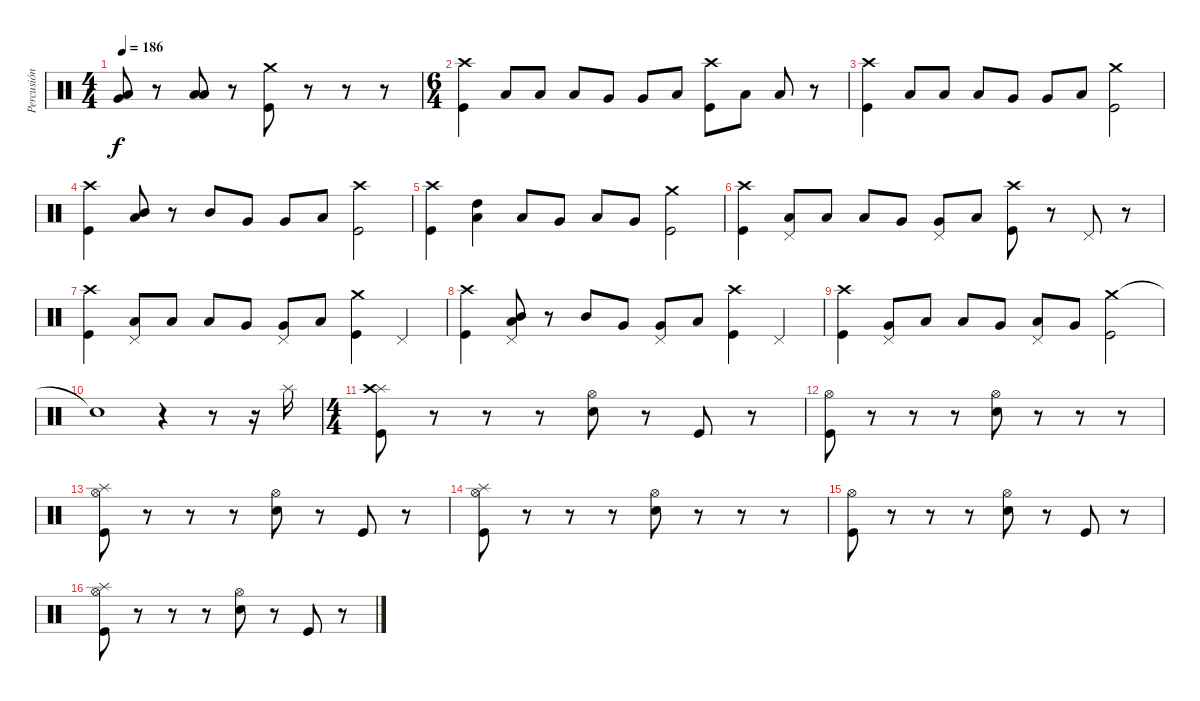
\track ("Percusión" "Percusión") {instrument percussion}
\staff {score}
\articulation defaults
\ts (4 4)
\tempo 186
\clef neutral
\ks c
("Low Tom (hit)" "Very Low Tom (hit)").8{dy f} r.8 ("Low Tom (hit)" "Low Floor Tom (hit)").8 r.8 ("Crash medium (hit)" "Kick (hit)").8 r.8 r.8 r.8 |
\ts (6 4)
("Crash high (hit)" "Kick (hit)").4 "Low Tom (hit)".8 "Low Tom (hit)".8 "Low Tom (hit)".8 "Very Low Tom (hit)".8 "Very Low Tom (hit)".8 "Low Tom (hit)".8 ("Crash high (hit)" "Kick (hit)").8 "Low Tom (hit)".8 "Low Floor Tom (hit)".8 r.8 |
("Crash high (hit)" "Kick (hit)").4 "Low Tom (hit)".8 "Low Tom (hit)".8 "Low Tom (hit)".8 "Very Low Tom (hit)".8 "Very Low Tom (hit)".8 "Low Tom (hit)".8 ("Crash medium (hit)" "Kick (hit)").2 |
("Crash high (hit)" "Kick (hit)").4 ("Low Tom (hit)" "Mid Tom (hit)").8 r.8 "Mid Tom (hit)".8 "Very Low Tom (hit)".8 "Very Low Tom (hit)".8 "Low Tom (hit)".8 ("Crash high (hit)" "Kick (hit)").2 |
("Crash high (hit)" "Kick (hit)").4 ("High Tom (hit)" "Low Floor Tom (hit)").4 "Low Tom (hit)".8 "Very Low Tom (hit)".8 "Low Floor Tom (hit)".8 "Very Low Tom (hit)".8 ("Crash medium (hit)" "Kick (hit)").2 |
("Crash high (hit)" "Kick (hit)").4 ("Low Tom (hit)" "Pedal Hi-Hat (hit)").8 "Low Tom (hit)".8 "Low Tom (hit)".8 "Very Low Tom (hit)".8 ("Very Low Tom (hit)" "Pedal Hi-Hat (hit)").8 "Low Tom (hit)".8 ("Crash high (hit)" "Kick (hit)").8 r.8 "Pedal Hi-Hat (hit)".8 r.8 |
("Crash high (hit)" "Kick (hit)").4 ("Low Tom (hit)" "Pedal Hi-Hat (hit)").8 "Low Tom (hit)".8 "Low Tom (hit)".8 "Very Low Tom (hit)".8 ("Very Low Tom (hit)" "Pedal Hi-Hat (hit)").8 "Low Tom (hit)".8 ("Crash medium (hit)" "Kick (hit)").4 "Pedal Hi-Hat (hit)".4 |
("Crash high (hit)" "Kick (hit)").4 ("Low Tom (hit)" "Mid Tom (hit)" "Pedal Hi-Hat (hit)").8 r.8 "Mid Tom (hit)".8 "Very Low Tom (hit)".8 ("Very Low Tom (hit)" "Pedal Hi-Hat (hit)").8 "Low Tom (hit)".8 ("Crash high (hit)" "Kick (hit)").4 "Pedal Hi-Hat (hit)".4 |
("Crash high (hit)" "Kick (hit)").4 ("Very Low Tom (hit)" "Pedal Hi-Hat (hit)").8 "Low Tom (hit)".8 "Low Tom (hit)".8 "Very Low Tom (hit)".8 ("Low Floor Tom (hit)" "Pedal Hi-Hat (hit)").8 "Very Low Tom (hit)".8 ("Crash medium (hit)" "Kick (hit)").2 |
"Snare (hit)"{t}.1 r.4 r.8 r.16 "Splash (hit)".16 |
\ts (4 4)
("Splash (hit)" "Crash high (hit)" "Kick (hit)").8 r.8 r.8 r.8 ("Hi-Hat (open)" "Snare (hit) 2").8 r.8 "Kick (hit)".8 r.8 |
("Hi-Hat (open)" "Kick (hit)").8 r.8 r.8 r.8 ("Hi-Hat (open)" "Snare (hit) 2").8 r.8 r.8 r.8 |
("Hi-Hat (open)" "Splash (hit)" "Kick (hit)").8 r.8 r.8 r.8 ("Hi-Hat (open)" "Snare (hit) 2").8 r.8 "Kick (hit)".8 r.8 |
("Hi-Hat (open)" "Splash (hit)" "Kick (hit)").8 r.8 r.8 r.8 ("Hi-Hat (open)" "Snare (hit) 2").8 r.8 r.8 r.8 |
("Hi-Hat (open)" "Kick (hit)").8 r.8 r.8 r.8 ("Hi-Hat (open)" "Snare (hit) 2").8 r.8 "Kick (hit)".8 r.8 |
("Hi-Hat (open)" "Splash (hit)" "Kick (hit)").8 r.8 r.8 r.8 ("Hi-Hat (open)" "Snare (hit) 2").8 r.8 "Kick (hit)".8 r.8
